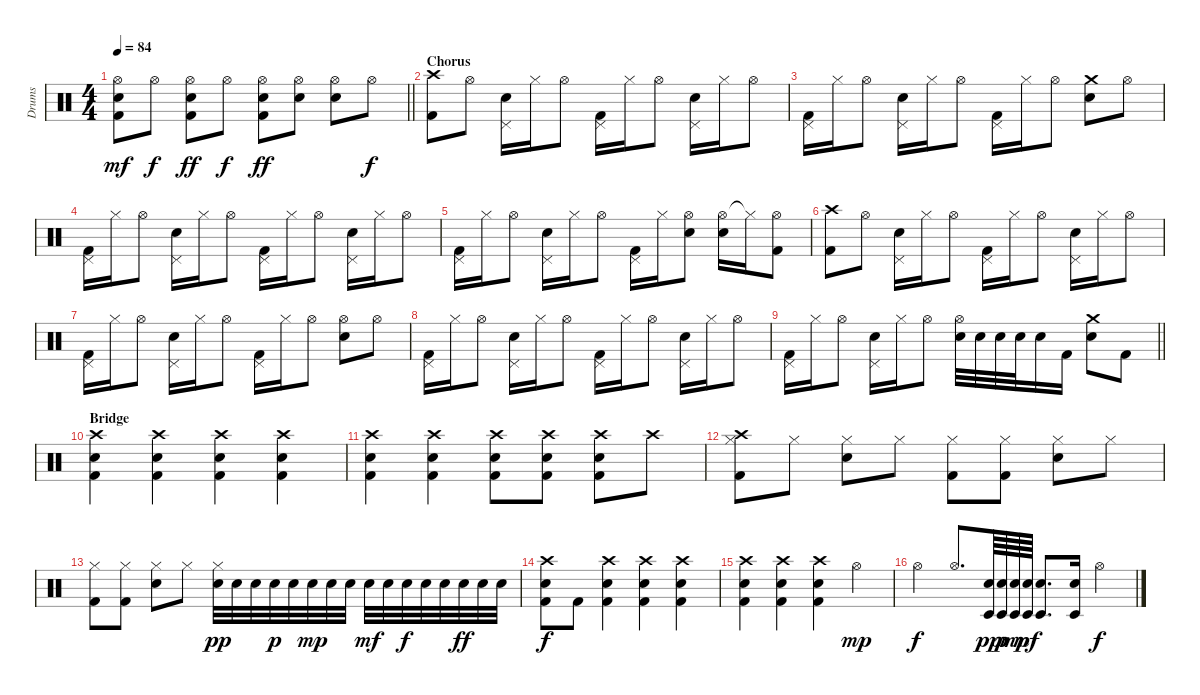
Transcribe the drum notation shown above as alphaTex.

\track ("Drums" "Drums") {instrument percussion}
\staff {score}
\articulation defaults
\ts (4 4)
\tempo 84
\clef neutral
\barLineRight lightlight
\ks c
("Hi-Hat (open)" "Electric Snare (hit)" "Kick (hit) 2").8{dy mf} "Hi-Hat (open)".8{dy f} ("Hi-Hat (open)" "Electric Snare (hit)" "Kick (hit) 2").8{dy ff} "Hi-Hat (open)".8{dy f} ("Hi-Hat (open)" "Electric Snare (hit)" "Kick (hit) 2").8{dy ff} ("Hi-Hat (open)" "Electric Snare (hit)").8 ("Hi-Hat (open)" "Electric Snare (hit)").8 "Hi-Hat (open)".8{dy f} |
\section ("" "Chorus")
("Crash high (hit)" "Kick (hit) 2").8 "Hi-Hat (open)".8 ("Pedal Hi-Hat (hit)" "Electric Snare (hit)").16 "Hi-Hat (closed)".16 "Hi-Hat (open)".8 ("Pedal Hi-Hat (hit)" "Kick (hit) 2").16 "Hi-Hat (closed)".16 "Hi-Hat (open)".8 ("Pedal Hi-Hat (hit)" "Electric Snare (hit)").16 "Hi-Hat (closed)".16 "Hi-Hat (open)".8 |
("Pedal Hi-Hat (hit)" "Kick (hit) 2").16 "Hi-Hat (closed)".16 "Hi-Hat (open)".8 ("Pedal Hi-Hat (hit)" "Electric Snare (hit)").16 "Hi-Hat (closed)".16 "Hi-Hat (open)".8 ("Pedal Hi-Hat (hit)" "Kick (hit) 2").16 "Hi-Hat (closed)".16 "Hi-Hat (open)".8 ("Crash medium (hit)" "Electric Snare (hit)").8 "Hi-Hat (open)".8 |
("Pedal Hi-Hat (hit)" "Kick (hit) 2").16 "Hi-Hat (closed)".16 "Hi-Hat (open)".8 ("Pedal Hi-Hat (hit)" "Electric Snare (hit)").16 "Hi-Hat (closed)".16 "Hi-Hat (open)".8 ("Pedal Hi-Hat (hit)" "Kick (hit) 2").16 "Hi-Hat (closed)".16 "Hi-Hat (open)".8 ("Pedal Hi-Hat (hit)" "Electric Snare (hit)").16 "Hi-Hat (closed)".16 "Hi-Hat (open)".8 |
("Pedal Hi-Hat (hit)" "Kick (hit) 2").16 "Hi-Hat (closed)".16 "Hi-Hat (open)".8 ("Pedal Hi-Hat (hit)" "Electric Snare (hit)").16 "Hi-Hat (closed)".16 "Hi-Hat (open)".8 ("Pedal Hi-Hat (hit)" "Kick (hit) 2").16 "Hi-Hat (closed)".16 ("Hi-Hat (open)" "Electric Snare (hit)").8 ("Hi-Hat (open)" "Electric Snare (hit)").16 "Hi-Hat (closed)"{t}.16 ("Hi-Hat (open)" "Kick (hit) 2").8 |
("Crash high (hit)" "Kick (hit) 2").8 "Hi-Hat (open)".8 ("Pedal Hi-Hat (hit)" "Electric Snare (hit)").16 "Hi-Hat (closed)".16 "Hi-Hat (open)".8 ("Pedal Hi-Hat (hit)" "Kick (hit) 2").16 "Hi-Hat (closed)".16 "Hi-Hat (open)".8 ("Pedal Hi-Hat (hit)" "Electric Snare (hit)").16 "Hi-Hat (closed)".16 "Hi-Hat (open)".8 |
("Pedal Hi-Hat (hit)" "Kick (hit) 2").16 "Hi-Hat (closed)".16 "Hi-Hat (open)".8 ("Pedal Hi-Hat (hit)" "Electric Snare (hit)").16 "Hi-Hat (closed)".16 "Hi-Hat (open)".8 ("Pedal Hi-Hat (hit)" "Kick (hit) 2").16 "Hi-Hat (closed)".16 "Hi-Hat (open)".8 ("Hi-Hat (open)" "Electric Snare (hit)").8 "Hi-Hat (open)".8 |
("Pedal Hi-Hat (hit)" "Kick (hit) 2").16 "Hi-Hat (closed)".16 "Hi-Hat (open)".8 ("Pedal Hi-Hat (hit)" "Electric Snare (hit)").16 "Hi-Hat (closed)".16 "Hi-Hat (open)".8 ("Pedal Hi-Hat (hit)" "Kick (hit) 2").16 "Hi-Hat (closed)".16 "Hi-Hat (open)".8 ("Pedal Hi-Hat (hit)" "Electric Snare (hit)").16 "Hi-Hat (closed)".16 "Hi-Hat (open)".8 |
\barLineRight lightlight
("Pedal Hi-Hat (hit)" "Kick (hit) 2").16 "Hi-Hat (closed)".16 "Hi-Hat (open)".8 ("Pedal Hi-Hat (hit)" "Electric Snare (hit)").16 "Hi-Hat (closed)".16 "Hi-Hat (open)".8 ("Hi-Hat (open)" "Electric Snare (hit)").32 "Electric Snare (hit)".32 "Electric Snare (hit)".32 "Electric Snare (hit)".32 "Electric Snare (hit)".16 "Kick (hit) 2".16 ("Crash medium (hit)" "Electric Snare (hit)").8 "Kick (hit) 2".8 |
\section ("" "Bridge")
("Crash high (hit)" "Electric Snare (hit)" "Kick (hit) 2").4 ("Crash high (hit)" "Electric Snare (hit)" "Kick (hit) 2").4 ("Crash high (hit)" "Electric Snare (hit)" "Kick (hit) 2").4 ("Crash high (hit)" "Electric Snare (hit)" "Kick (hit) 2").4 |
("Crash high (hit)" "Electric Snare (hit)" "Kick (hit) 2").4 ("Crash high (hit)" "Electric Snare (hit)" "Kick (hit) 2").4 ("Crash high (hit)" "Electric Snare (hit)" "Kick (hit) 2").8 ("Crash high (hit)" "Electric Snare (hit)" "Kick (hit) 2").8 ("Crash high (hit)" "Electric Snare (hit)" "Kick (hit) 2").8 "Crash high (hit)".8 |
("Crash high (hit)" "Hi-Hat (closed)" "Kick (hit) 2").8 "Hi-Hat (closed)".8 ("Hi-Hat (closed)" "Electric Snare (hit)").8 "Hi-Hat (closed)".8 ("Hi-Hat (closed)" "Kick (hit) 2").8 ("Hi-Hat (closed)" "Kick (hit) 2").8 ("Hi-Hat (closed)" "Electric Snare (hit)").8 "Hi-Hat (closed)".8 |
("Hi-Hat (closed)" "Kick (hit) 2").8 ("Hi-Hat (closed)" "Kick (hit) 2").8 ("Hi-Hat (closed)" "Electric Snare (hit)").8 "Hi-Hat (closed)".8 ("Hi-Hat (closed)" "Electric Snare (hit)").32{dy pp} "Electric Snare (hit)".32 "Electric Snare (hit)".32 "Electric Snare (hit)".32{dy p} "Electric Snare (hit)".32 "Electric Snare (hit)".32{dy mp} "Electric Snare (hit)".32 "Electric Snare (hit)".32 "Electric Snare (hit)".32{dy mf} "Electric Snare (hit)".32 "Electric Snare (hit)".32{dy f} "Electric Snare (hit)".32 "Electric Snare (hit)".32 "Electric Snare (hit)".32{dy ff} "Electric Snare (hit)".32 "Electric Snare (hit)".32 |
("Crash high (hit)" "Electric Snare (hit)" "Kick (hit) 2").8{dy f} "Kick (hit) 2".8 ("Crash high (hit)" "Electric Snare (hit)" "Kick (hit) 2").4 ("Crash high (hit)" "Electric Snare (hit)" "Kick (hit) 2").4 ("Crash high (hit)" "Electric Snare (hit)" "Kick (hit) 2").4 |
("Crash high (hit)" "Electric Snare (hit)" "Kick (hit) 2").4 ("Crash high (hit)" "Electric Snare (hit)" "Kick (hit) 2").4 ("Crash high (hit)" "Electric Snare (hit)" "Kick (hit) 2").4 "Hi-Hat (open)".4{dy mp} |
"Hi-Hat (open)".4{dy f} "Hi-Hat (open)".8{d} ("Timbale low (hit)" "Electric Snare (hit)").64{dy pp} ("Timbale low (hit)" "Electric Snare (hit)").64{dy p} ("Timbale low (hit)" "Electric Snare (hit)").64{dy mp} ("Timbale low (hit)" "Electric Snare (hit)").64{dy mf} ("Timbale low (hit)" "Electric Snare (hit)").8{d} ("Timbale low (hit)" "Electric Snare (hit)").16 "Hi-Hat (open)".4{dy f}
